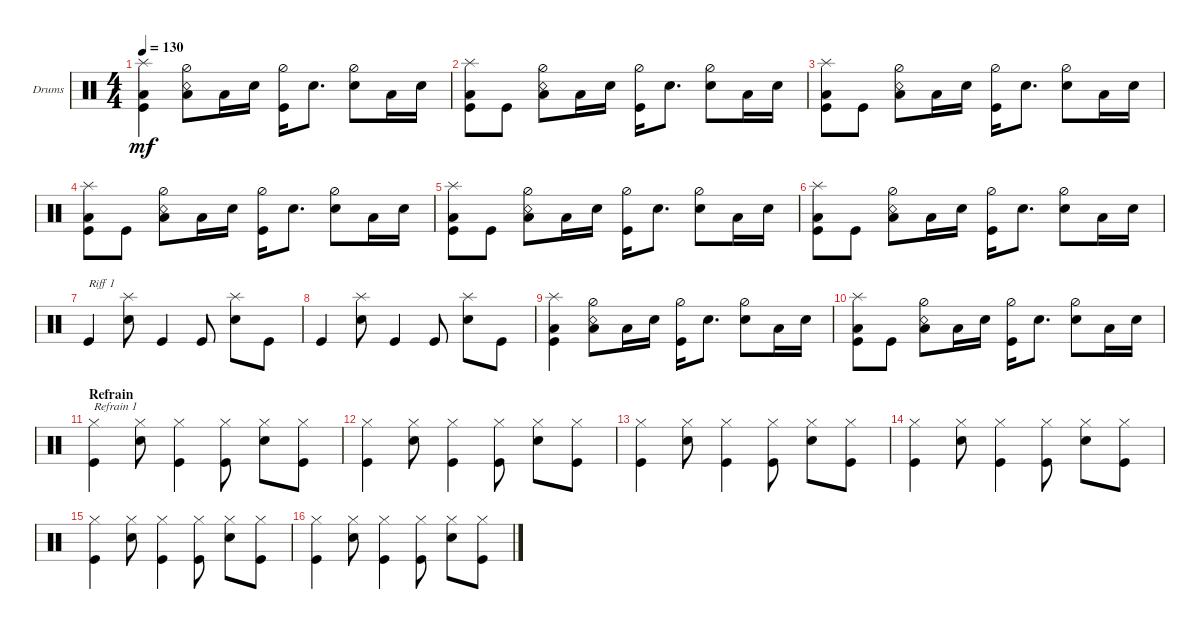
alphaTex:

\defaultSystemsLayout 4
\bracketExtendMode groupsimilarinstruments
\firstSystemTrackNameOrientation horizontal
\otherSystemsTrackNameOrientation horizontal
\track ("Drumkit" "Drums") {instrument percussion}
\staff {score}
\articulation defaults
\ts (4 4)
\tempo 130
\clef neutral
\ks c
("Low Tom (hit)" "Kick (hit)" "Splash (hit)").4{dy mf} ("Low Tom (hit)" "Snare (rim shot)" "Hi-Hat (half)").8 "Low Tom (hit)".16 "Snare (hit) 2".16 ("Kick (hit)" "Hi-Hat (half)").16 "Snare (hit) 2".8{d} ("Hi-Hat (half)" "Snare (hit) 2").8 "Low Tom (hit)".16 "Snare (hit) 2".16 |
("Low Tom (hit)" "Kick (hit)" "Splash (hit)").8 "Kick (hit)".8 ("Low Tom (hit)" "Snare (rim shot)" "Hi-Hat (half)").8 "Low Tom (hit)".16 "Snare (hit) 2".16 ("Kick (hit)" "Hi-Hat (half)").16 "Snare (hit) 2".8{d} ("Hi-Hat (half)" "Snare (hit) 2").8 "Low Tom (hit)".16 "Snare (hit) 2".16 |
("Low Tom (hit)" "Kick (hit)" "Splash (hit)").8 "Kick (hit)".8 ("Low Tom (hit)" "Snare (rim shot)" "Hi-Hat (half)").8 "Low Tom (hit)".16 "Snare (hit) 2".16 ("Kick (hit)" "Hi-Hat (half)").16 "Snare (hit) 2".8{d} ("Hi-Hat (half)" "Snare (hit) 2").8 "Low Tom (hit)".16 "Snare (hit) 2".16 |
("Low Tom (hit)" "Kick (hit)" "Splash (hit)").8 "Kick (hit)".8 ("Low Tom (hit)" "Snare (rim shot)" "Hi-Hat (half)").8 "Low Tom (hit)".16 "Snare (hit) 2".16 ("Kick (hit)" "Hi-Hat (half)").16 "Snare (hit) 2".8{d} ("Hi-Hat (half)" "Snare (hit) 2").8 "Low Tom (hit)".16 "Snare (hit) 2".16 |
("Low Tom (hit)" "Kick (hit)" "Splash (hit)").8 "Kick (hit)".8 ("Low Tom (hit)" "Snare (rim shot)" "Hi-Hat (half)").8 "Low Tom (hit)".16 "Snare (hit) 2".16 ("Kick (hit)" "Hi-Hat (half)").16 "Snare (hit) 2".8{d} ("Hi-Hat (half)" "Snare (hit) 2").8 "Low Tom (hit)".16 "Snare (hit) 2".16 |
("Low Tom (hit)" "Kick (hit)" "Splash (hit)").8 "Kick (hit)".8 ("Low Tom (hit)" "Snare (rim shot)" "Hi-Hat (half)").8 "Low Tom (hit)".16 "Snare (hit) 2".16 ("Kick (hit)" "Hi-Hat (half)").16 "Snare (hit) 2".8{d} ("Hi-Hat (half)" "Snare (hit) 2").8 "Low Tom (hit)".16 "Snare (hit) 2".16 |
"Kick (hit)".4{txt "Riff 1"} ("Snare (hit) 2" "Splash (hit)").8 "Kick (hit)".4 "Kick (hit)".8 ("Snare (hit) 2" "Splash (hit)").8 "Kick (hit)".8 |
"Kick (hit)".4 ("Snare (hit) 2" "Splash (hit)").8 "Kick (hit)".4 "Kick (hit)".8 ("Snare (hit) 2" "Splash (hit)").8 "Kick (hit)".8 |
("Low Tom (hit)" "Kick (hit)" "Splash (hit)").4 ("Low Tom (hit)" "Snare (rim shot)" "Hi-Hat (half)").8 "Low Tom (hit)".16 "Snare (hit) 2".16 ("Kick (hit)" "Hi-Hat (half)").16 "Snare (hit) 2".8{d} ("Hi-Hat (half)" "Snare (hit) 2").8 "Low Tom (hit)".16 "Snare (hit) 2".16 |
("Low Tom (hit)" "Kick (hit)" "Splash (hit)").8 "Kick (hit)".8 ("Low Tom (hit)" "Snare (rim shot)" "Hi-Hat (half)").8 "Low Tom (hit)".16 "Snare (hit) 2".16 ("Kick (hit)" "Hi-Hat (half)").16 "Snare (hit) 2".8{d} ("Hi-Hat (half)" "Snare (hit) 2").8 "Low Tom (hit)".16 "Snare (hit) 2".16 |
\section ("" "Refrain")
("Kick (hit)" "Hi-Hat (closed)").4{txt "Refrain 1"} ("Snare (hit) 2" "Hi-Hat (closed)").8 ("Kick (hit)" "Hi-Hat (closed)").4 ("Kick (hit)" "Hi-Hat (closed)").8 ("Snare (hit) 2" "Hi-Hat (closed)").8 ("Kick (hit)" "Hi-Hat (closed)").8 |
("Kick (hit)" "Hi-Hat (closed)").4 ("Snare (hit) 2" "Hi-Hat (closed)").8 ("Kick (hit)" "Hi-Hat (closed)").4 ("Kick (hit)" "Hi-Hat (closed)").8 ("Snare (hit) 2" "Hi-Hat (closed)").8 ("Kick (hit)" "Hi-Hat (closed)").8 |
("Kick (hit)" "Hi-Hat (closed)").4 ("Snare (hit) 2" "Hi-Hat (closed)").8 ("Kick (hit)" "Hi-Hat (closed)").4 ("Kick (hit)" "Hi-Hat (closed)").8 ("Snare (hit) 2" "Hi-Hat (closed)").8 ("Kick (hit)" "Hi-Hat (closed)").8 |
("Kick (hit)" "Hi-Hat (closed)").4 ("Snare (hit) 2" "Hi-Hat (closed)").8 ("Kick (hit)" "Hi-Hat (closed)").4 ("Kick (hit)" "Hi-Hat (closed)").8 ("Snare (hit) 2" "Hi-Hat (closed)").8 ("Kick (hit)" "Hi-Hat (closed)").8 |
("Kick (hit)" "Hi-Hat (closed)").4 ("Snare (hit) 2" "Hi-Hat (closed)").8 ("Kick (hit)" "Hi-Hat (closed)").4 ("Kick (hit)" "Hi-Hat (closed)").8 ("Snare (hit) 2" "Hi-Hat (closed)").8 ("Kick (hit)" "Hi-Hat (closed)").8 |
("Kick (hit)" "Hi-Hat (closed)").4 ("Snare (hit) 2" "Hi-Hat (closed)").8 ("Kick (hit)" "Hi-Hat (closed)").4 ("Kick (hit)" "Hi-Hat (closed)").8 ("Snare (hit) 2" "Hi-Hat (closed)").8 ("Kick (hit)" "Hi-Hat (closed)").8
